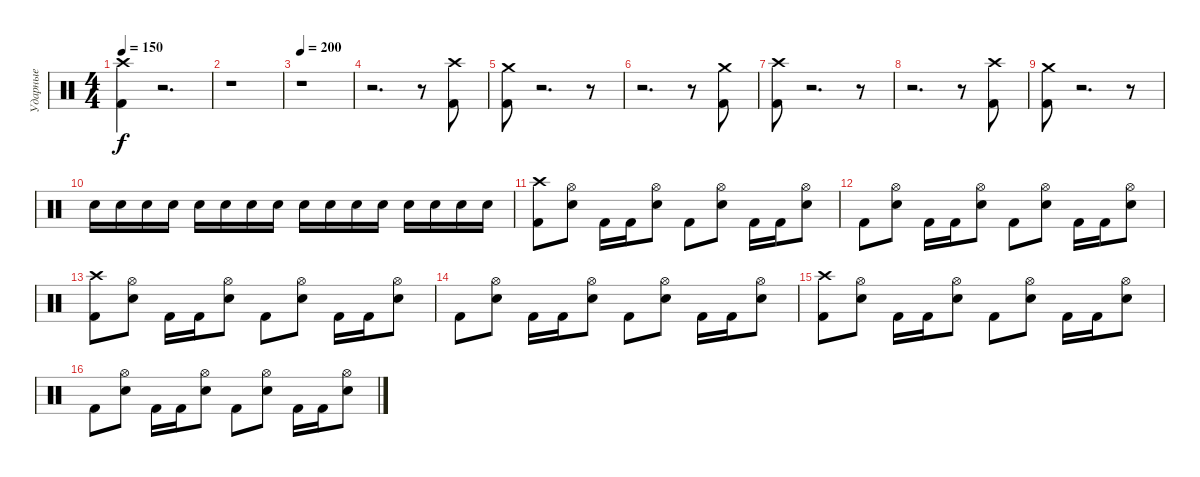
\track ("Ударные" "Ударные") {instrument percussion}
\staff {score}
\articulation defaults
\ts (4 4)
\tempo 150
\clef neutral
\ks c
("Crash high (hit)" "Kick (hit) 2").4{dy f} r.2{d} |
r.1 |
\tempo 200
r.1 |
r.2{d} r.8 ("Crash high (hit)" "Kick (hit) 2").8 |
("Crash medium (hit)" "Kick (hit) 2").8 r.2{d} r.8 |
r.2{d} r.8 ("Crash medium (hit)" "Kick (hit) 2").8 |
("Crash high (hit)" "Kick (hit) 2").8 r.2{d} r.8 |
r.2{d} r.8 ("Crash high (hit)" "Kick (hit) 2").8 |
("Crash medium (hit)" "Kick (hit) 2").8 r.2{d} r.8 |
"Snare (hit) 2".16 "Snare (hit) 2".16 "Snare (hit) 2".16 "Snare (hit) 2".16 "Snare (hit) 2".16 "Snare (hit) 2".16 "Snare (hit) 2".16 "Snare (hit) 2".16 "Snare (hit) 2".16 "Snare (hit) 2".16 "Snare (hit) 2".16 "Snare (hit) 2".16 "Snare (hit) 2".16 "Snare (hit) 2".16 "Snare (hit) 2".16 "Snare (hit) 2".16 |
("Crash high (hit)" "Kick (hit) 2").8 ("Hi-Hat (open)" "Snare (hit) 2").8 "Kick (hit) 2".16 "Kick (hit) 2".16 ("Hi-Hat (open)" "Snare (hit) 2").8 "Kick (hit) 2".8 ("Hi-Hat (open)" "Snare (hit) 2").8 "Kick (hit) 2".16 "Kick (hit) 2".16 ("Hi-Hat (open)" "Snare (hit) 2").8 |
"Kick (hit) 2".8 ("Hi-Hat (open)" "Snare (hit) 2").8 "Kick (hit) 2".16 "Kick (hit) 2".16 ("Hi-Hat (open)" "Snare (hit) 2").8 "Kick (hit) 2".8 ("Hi-Hat (open)" "Snare (hit) 2").8 "Kick (hit) 2".16 "Kick (hit) 2".16 ("Hi-Hat (open)" "Snare (hit) 2").8 |
("Crash high (hit)" "Kick (hit) 2").8 ("Hi-Hat (open)" "Snare (hit) 2").8 "Kick (hit) 2".16 "Kick (hit) 2".16 ("Hi-Hat (open)" "Snare (hit) 2").8 "Kick (hit) 2".8 ("Hi-Hat (open)" "Snare (hit) 2").8 "Kick (hit) 2".16 "Kick (hit) 2".16 ("Hi-Hat (open)" "Snare (hit) 2").8 |
"Kick (hit) 2".8 ("Hi-Hat (open)" "Snare (hit) 2").8 "Kick (hit) 2".16 "Kick (hit) 2".16 ("Hi-Hat (open)" "Snare (hit) 2").8 "Kick (hit) 2".8 ("Hi-Hat (open)" "Snare (hit) 2").8 "Kick (hit) 2".16 "Kick (hit) 2".16 ("Hi-Hat (open)" "Snare (hit) 2").8 |
("Crash high (hit)" "Kick (hit) 2").8 ("Hi-Hat (open)" "Snare (hit) 2").8 "Kick (hit) 2".16 "Kick (hit) 2".16 ("Hi-Hat (open)" "Snare (hit) 2").8 "Kick (hit) 2".8 ("Hi-Hat (open)" "Snare (hit) 2").8 "Kick (hit) 2".16 "Kick (hit) 2".16 ("Hi-Hat (open)" "Snare (hit) 2").8 |
"Kick (hit) 2".8 ("Hi-Hat (open)" "Snare (hit) 2").8 "Kick (hit) 2".16 "Kick (hit) 2".16 ("Hi-Hat (open)" "Snare (hit) 2").8 "Kick (hit) 2".8 ("Hi-Hat (open)" "Snare (hit) 2").8 "Kick (hit) 2".16 "Kick (hit) 2".16 ("Hi-Hat (open)" "Snare (hit) 2").8
